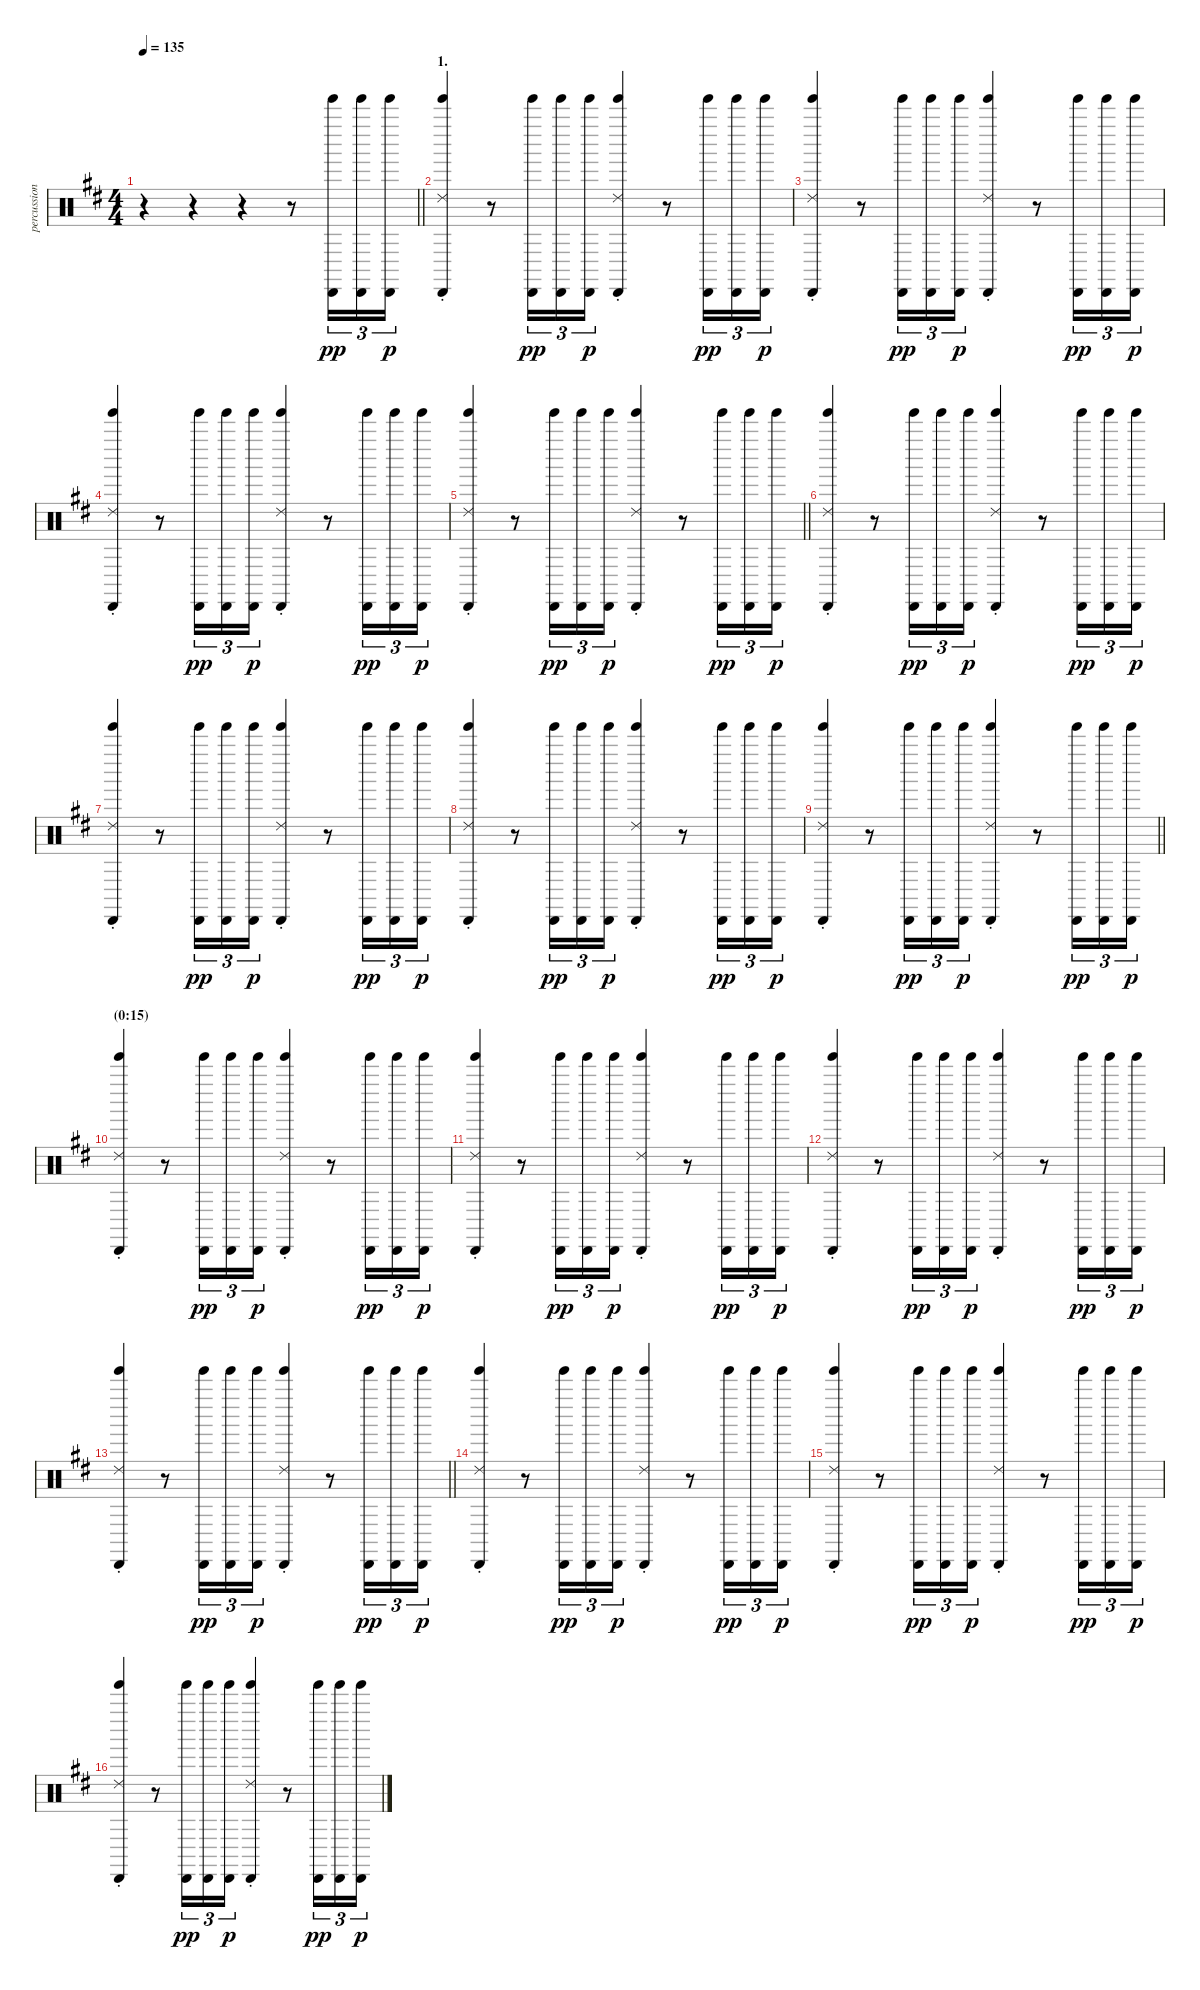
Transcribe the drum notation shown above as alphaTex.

\track ("percussion" "percussion") {instrument percussion}
\staff {score}
\articulation defaults
\ts (4 4)
\tempo 135
\clef neutral
\barLineRight lightlight
\ks d
r.4{dy pp} r.4 r.4 r.8 ("Cabasa (hit)" "Tinkle Bell (hit)").16{tu (3 2)} ("Cabasa (hit)" "Tinkle Bell (hit)").16{tu (3 2)} ("Cabasa (hit)" "Tinkle Bell (hit)").16{tu (3 2) dy p} |
\section ("" "1.")
("Ride (choke) 2" "Cabasa (hit)" "Tinkle Bell (hit)").4 r.8 ("Cabasa (hit)" "Tinkle Bell (hit)").16{tu (3 2) dy pp} ("Cabasa (hit)" "Tinkle Bell (hit)").16{tu (3 2)} ("Cabasa (hit)" "Tinkle Bell (hit)").16{tu (3 2) dy p} ("Ride (choke) 2" "Cabasa (hit)" "Tinkle Bell (hit)").4 r.8 ("Cabasa (hit)" "Tinkle Bell (hit)").16{tu (3 2) dy pp} ("Cabasa (hit)" "Tinkle Bell (hit)").16{tu (3 2)} ("Cabasa (hit)" "Tinkle Bell (hit)").16{tu (3 2) dy p} |
("Ride (choke) 2" "Cabasa (hit)" "Tinkle Bell (hit)").4 r.8 ("Cabasa (hit)" "Tinkle Bell (hit)").16{tu (3 2) dy pp} ("Cabasa (hit)" "Tinkle Bell (hit)").16{tu (3 2)} ("Cabasa (hit)" "Tinkle Bell (hit)").16{tu (3 2) dy p} ("Ride (choke) 2" "Cabasa (hit)" "Tinkle Bell (hit)").4 r.8 ("Cabasa (hit)" "Tinkle Bell (hit)").16{tu (3 2) dy pp} ("Cabasa (hit)" "Tinkle Bell (hit)").16{tu (3 2)} ("Cabasa (hit)" "Tinkle Bell (hit)").16{tu (3 2) dy p} |
("Ride (choke) 2" "Cabasa (hit)" "Tinkle Bell (hit)").4 r.8 ("Cabasa (hit)" "Tinkle Bell (hit)").16{tu (3 2) dy pp} ("Cabasa (hit)" "Tinkle Bell (hit)").16{tu (3 2)} ("Cabasa (hit)" "Tinkle Bell (hit)").16{tu (3 2) dy p} ("Ride (choke) 2" "Cabasa (hit)" "Tinkle Bell (hit)").4 r.8 ("Cabasa (hit)" "Tinkle Bell (hit)").16{tu (3 2) dy pp} ("Cabasa (hit)" "Tinkle Bell (hit)").16{tu (3 2)} ("Cabasa (hit)" "Tinkle Bell (hit)").16{tu (3 2) dy p} |
\barLineRight lightlight
("Ride (choke) 2" "Cabasa (hit)" "Tinkle Bell (hit)").4 r.8 ("Cabasa (hit)" "Tinkle Bell (hit)").16{tu (3 2) dy pp} ("Cabasa (hit)" "Tinkle Bell (hit)").16{tu (3 2)} ("Cabasa (hit)" "Tinkle Bell (hit)").16{tu (3 2) dy p} ("Ride (choke) 2" "Cabasa (hit)" "Tinkle Bell (hit)").4 r.8 ("Cabasa (hit)" "Tinkle Bell (hit)").16{tu (3 2) dy pp} ("Cabasa (hit)" "Tinkle Bell (hit)").16{tu (3 2)} ("Cabasa (hit)" "Tinkle Bell (hit)").16{tu (3 2) dy p} |
("Ride (choke) 2" "Cabasa (hit)" "Tinkle Bell (hit)").4 r.8 ("Cabasa (hit)" "Tinkle Bell (hit)").16{tu (3 2) dy pp} ("Cabasa (hit)" "Tinkle Bell (hit)").16{tu (3 2)} ("Cabasa (hit)" "Tinkle Bell (hit)").16{tu (3 2) dy p} ("Ride (choke) 2" "Cabasa (hit)" "Tinkle Bell (hit)").4 r.8 ("Cabasa (hit)" "Tinkle Bell (hit)").16{tu (3 2) dy pp} ("Cabasa (hit)" "Tinkle Bell (hit)").16{tu (3 2)} ("Cabasa (hit)" "Tinkle Bell (hit)").16{tu (3 2) dy p} |
("Ride (choke) 2" "Cabasa (hit)" "Tinkle Bell (hit)").4 r.8 ("Cabasa (hit)" "Tinkle Bell (hit)").16{tu (3 2) dy pp} ("Cabasa (hit)" "Tinkle Bell (hit)").16{tu (3 2)} ("Cabasa (hit)" "Tinkle Bell (hit)").16{tu (3 2) dy p} ("Ride (choke) 2" "Cabasa (hit)" "Tinkle Bell (hit)").4 r.8 ("Cabasa (hit)" "Tinkle Bell (hit)").16{tu (3 2) dy pp} ("Cabasa (hit)" "Tinkle Bell (hit)").16{tu (3 2)} ("Cabasa (hit)" "Tinkle Bell (hit)").16{tu (3 2) dy p} |
("Ride (choke) 2" "Cabasa (hit)" "Tinkle Bell (hit)").4 r.8 ("Cabasa (hit)" "Tinkle Bell (hit)").16{tu (3 2) dy pp} ("Cabasa (hit)" "Tinkle Bell (hit)").16{tu (3 2)} ("Cabasa (hit)" "Tinkle Bell (hit)").16{tu (3 2) dy p} ("Ride (choke) 2" "Cabasa (hit)" "Tinkle Bell (hit)").4 r.8 ("Cabasa (hit)" "Tinkle Bell (hit)").16{tu (3 2) dy pp} ("Cabasa (hit)" "Tinkle Bell (hit)").16{tu (3 2)} ("Cabasa (hit)" "Tinkle Bell (hit)").16{tu (3 2) dy p} |
\barLineRight lightlight
("Ride (choke) 2" "Cabasa (hit)" "Tinkle Bell (hit)").4 r.8 ("Cabasa (hit)" "Tinkle Bell (hit)").16{tu (3 2) dy pp} ("Cabasa (hit)" "Tinkle Bell (hit)").16{tu (3 2)} ("Cabasa (hit)" "Tinkle Bell (hit)").16{tu (3 2) dy p} ("Ride (choke) 2" "Cabasa (hit)" "Tinkle Bell (hit)").4 r.8 ("Cabasa (hit)" "Tinkle Bell (hit)").16{tu (3 2) dy pp} ("Cabasa (hit)" "Tinkle Bell (hit)").16{tu (3 2)} ("Cabasa (hit)" "Tinkle Bell (hit)").16{tu (3 2) dy p} |
\section ("" "(0:15)")
("Ride (choke) 2" "Cabasa (hit)" "Tinkle Bell (hit)").4 r.8 ("Cabasa (hit)" "Tinkle Bell (hit)").16{tu (3 2) dy pp} ("Cabasa (hit)" "Tinkle Bell (hit)").16{tu (3 2)} ("Cabasa (hit)" "Tinkle Bell (hit)").16{tu (3 2) dy p} ("Ride (choke) 2" "Cabasa (hit)" "Tinkle Bell (hit)").4 r.8 ("Cabasa (hit)" "Tinkle Bell (hit)").16{tu (3 2) dy pp} ("Cabasa (hit)" "Tinkle Bell (hit)").16{tu (3 2)} ("Cabasa (hit)" "Tinkle Bell (hit)").16{tu (3 2) dy p} |
("Ride (choke) 2" "Cabasa (hit)" "Tinkle Bell (hit)").4 r.8 ("Cabasa (hit)" "Tinkle Bell (hit)").16{tu (3 2) dy pp} ("Cabasa (hit)" "Tinkle Bell (hit)").16{tu (3 2)} ("Cabasa (hit)" "Tinkle Bell (hit)").16{tu (3 2) dy p} ("Ride (choke) 2" "Cabasa (hit)" "Tinkle Bell (hit)").4 r.8 ("Cabasa (hit)" "Tinkle Bell (hit)").16{tu (3 2) dy pp} ("Cabasa (hit)" "Tinkle Bell (hit)").16{tu (3 2)} ("Cabasa (hit)" "Tinkle Bell (hit)").16{tu (3 2) dy p} |
("Ride (choke) 2" "Cabasa (hit)" "Tinkle Bell (hit)").4 r.8 ("Cabasa (hit)" "Tinkle Bell (hit)").16{tu (3 2) dy pp} ("Cabasa (hit)" "Tinkle Bell (hit)").16{tu (3 2)} ("Cabasa (hit)" "Tinkle Bell (hit)").16{tu (3 2) dy p} ("Ride (choke) 2" "Cabasa (hit)" "Tinkle Bell (hit)").4 r.8 ("Cabasa (hit)" "Tinkle Bell (hit)").16{tu (3 2) dy pp} ("Cabasa (hit)" "Tinkle Bell (hit)").16{tu (3 2)} ("Cabasa (hit)" "Tinkle Bell (hit)").16{tu (3 2) dy p} |
\barLineRight lightlight
("Ride (choke) 2" "Cabasa (hit)" "Tinkle Bell (hit)").4 r.8 ("Cabasa (hit)" "Tinkle Bell (hit)").16{tu (3 2) dy pp} ("Cabasa (hit)" "Tinkle Bell (hit)").16{tu (3 2)} ("Cabasa (hit)" "Tinkle Bell (hit)").16{tu (3 2) dy p} ("Ride (choke) 2" "Cabasa (hit)" "Tinkle Bell (hit)").4 r.8 ("Cabasa (hit)" "Tinkle Bell (hit)").16{tu (3 2) dy pp} ("Cabasa (hit)" "Tinkle Bell (hit)").16{tu (3 2)} ("Cabasa (hit)" "Tinkle Bell (hit)").16{tu (3 2) dy p} |
("Ride (choke) 2" "Cabasa (hit)" "Tinkle Bell (hit)").4 r.8 ("Cabasa (hit)" "Tinkle Bell (hit)").16{tu (3 2) dy pp} ("Cabasa (hit)" "Tinkle Bell (hit)").16{tu (3 2)} ("Cabasa (hit)" "Tinkle Bell (hit)").16{tu (3 2) dy p} ("Ride (choke) 2" "Cabasa (hit)" "Tinkle Bell (hit)").4 r.8 ("Cabasa (hit)" "Tinkle Bell (hit)").16{tu (3 2) dy pp} ("Cabasa (hit)" "Tinkle Bell (hit)").16{tu (3 2)} ("Cabasa (hit)" "Tinkle Bell (hit)").16{tu (3 2) dy p} |
("Ride (choke) 2" "Cabasa (hit)" "Tinkle Bell (hit)").4 r.8 ("Cabasa (hit)" "Tinkle Bell (hit)").16{tu (3 2) dy pp} ("Cabasa (hit)" "Tinkle Bell (hit)").16{tu (3 2)} ("Cabasa (hit)" "Tinkle Bell (hit)").16{tu (3 2) dy p} ("Ride (choke) 2" "Cabasa (hit)" "Tinkle Bell (hit)").4 r.8 ("Cabasa (hit)" "Tinkle Bell (hit)").16{tu (3 2) dy pp} ("Cabasa (hit)" "Tinkle Bell (hit)").16{tu (3 2)} ("Cabasa (hit)" "Tinkle Bell (hit)").16{tu (3 2) dy p} |
("Ride (choke) 2" "Cabasa (hit)" "Tinkle Bell (hit)").4 r.8 ("Cabasa (hit)" "Tinkle Bell (hit)").16{tu (3 2) dy pp} ("Cabasa (hit)" "Tinkle Bell (hit)").16{tu (3 2)} ("Cabasa (hit)" "Tinkle Bell (hit)").16{tu (3 2) dy p} ("Ride (choke) 2" "Cabasa (hit)" "Tinkle Bell (hit)").4 r.8 ("Cabasa (hit)" "Tinkle Bell (hit)").16{tu (3 2) dy pp} ("Cabasa (hit)" "Tinkle Bell (hit)").16{tu (3 2)} ("Cabasa (hit)" "Tinkle Bell (hit)").16{tu (3 2) dy p}
